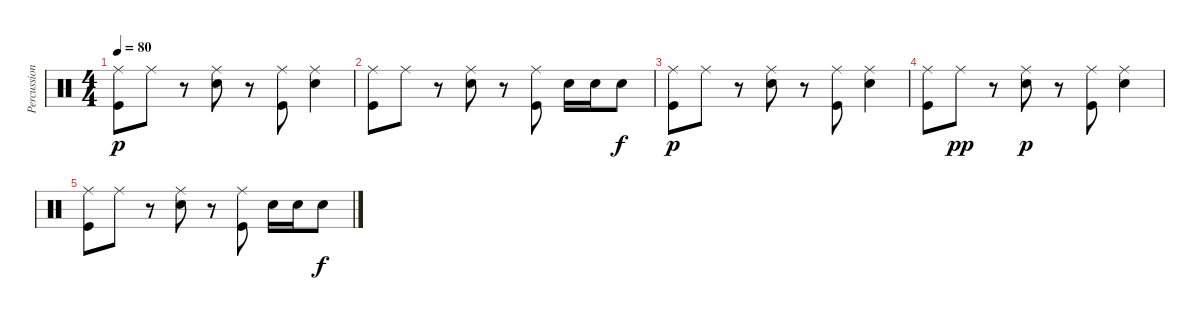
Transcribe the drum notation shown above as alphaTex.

\track ("Percussion" "Percussion") {instrument percussion}
\staff {score}
\articulation defaults
\ts (4 4)
\tempo 80
\clef neutral
\ks c
("Ride (middle)" "Kick (hit)").8{dy p} "Ride (middle)".8 r.8 ("Ride (middle)" "Electric Snare (hit)").8 r.8 ("Ride (middle)" "Kick (hit)").8 ("Ride (middle)" "Electric Snare (hit)").4 |
("Ride (middle)" "Kick (hit)").8 "Ride (middle)".8 r.8 ("Ride (middle)" "Electric Snare (hit)").8 r.8 ("Ride (middle)" "Kick (hit)").8 "Electric Snare (hit)".16 "Electric Snare (hit)".16 "Electric Snare (hit)".8{dy f} |
("Ride (middle)" "Kick (hit)").8{dy p} "Ride (middle)".8 r.8 ("Ride (middle)" "Electric Snare (hit)").8 r.8 ("Ride (middle)" "Kick (hit)").8 ("Ride (middle)" "Electric Snare (hit)").4 |
("Ride (middle)" "Kick (hit)").8 "Ride (middle)".8{dy pp} r.8 ("Ride (middle)" "Electric Snare (hit)").8{dy p} r.8 ("Ride (middle)" "Kick (hit)").8 ("Ride (middle)" "Electric Snare (hit)").4 |
("Ride (middle)" "Kick (hit)").8 "Ride (middle)".8 r.8 ("Ride (middle)" "Electric Snare (hit)").8 r.8 ("Ride (middle)" "Kick (hit)").8 "Electric Snare (hit)".16 "Electric Snare (hit)".16 "Electric Snare (hit)".8{dy f}
